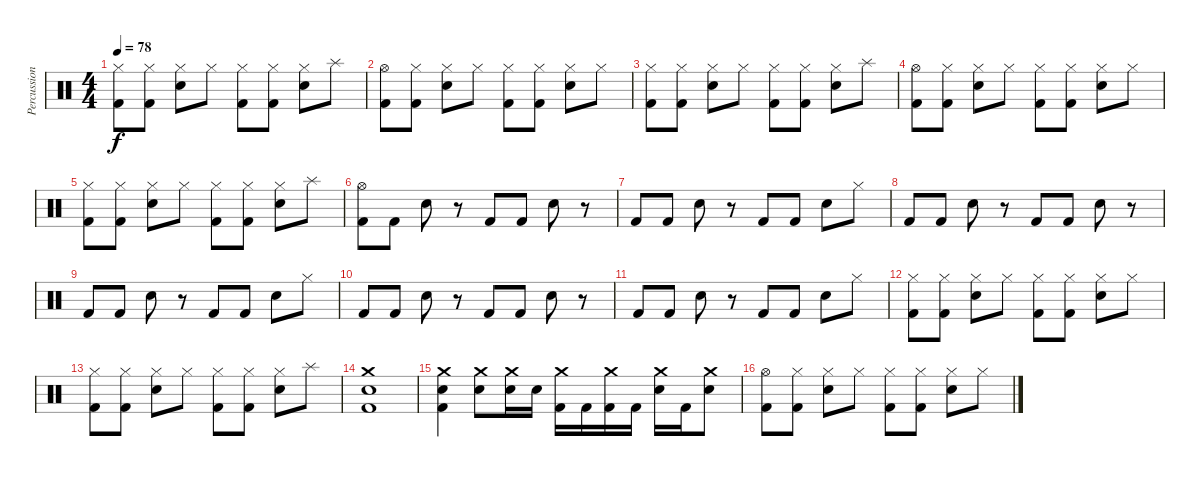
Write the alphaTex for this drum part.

\track ("Percussions" "Percussion") {instrument percussion}
\staff {score}
\articulation defaults
\ts (4 4)
\tempo 78
\clef neutral
\ks c
("Hi-Hat (closed)" "Kick (hit) 2").8{dy f} ("Hi-Hat (closed)" "Kick (hit) 2").8 ("Hi-Hat (closed)" "Electric Snare (hit)").8 "Hi-Hat (closed)".8 ("Hi-Hat (closed)" "Kick (hit) 2").8 ("Hi-Hat (closed)" "Kick (hit) 2").8 ("Hi-Hat (closed)" "Electric Snare (hit)").8 "Splash (hit)".8 |
("Hi-Hat (open)" "Kick (hit) 2").8 ("Hi-Hat (closed)" "Kick (hit) 2").8 ("Hi-Hat (closed)" "Electric Snare (hit)").8 "Hi-Hat (closed)".8 ("Hi-Hat (closed)" "Kick (hit) 2").8 ("Hi-Hat (closed)" "Kick (hit) 2").8 ("Hi-Hat (closed)" "Electric Snare (hit)").8 "Hi-Hat (closed)".8 |
("Hi-Hat (closed)" "Kick (hit) 2").8 ("Hi-Hat (closed)" "Kick (hit) 2").8 ("Hi-Hat (closed)" "Electric Snare (hit)").8 "Hi-Hat (closed)".8 ("Hi-Hat (closed)" "Kick (hit) 2").8 ("Hi-Hat (closed)" "Kick (hit) 2").8 ("Hi-Hat (closed)" "Electric Snare (hit)").8 "Splash (hit)".8 |
("Hi-Hat (open)" "Kick (hit) 2").8 ("Hi-Hat (closed)" "Kick (hit) 2").8 ("Hi-Hat (closed)" "Electric Snare (hit)").8 "Hi-Hat (closed)".8 ("Hi-Hat (closed)" "Kick (hit) 2").8 ("Hi-Hat (closed)" "Kick (hit) 2").8 ("Hi-Hat (closed)" "Electric Snare (hit)").8 "Hi-Hat (closed)".8 |
("Hi-Hat (closed)" "Kick (hit) 2").8 ("Hi-Hat (closed)" "Kick (hit) 2").8 ("Hi-Hat (closed)" "Electric Snare (hit)").8 "Hi-Hat (closed)".8 ("Hi-Hat (closed)" "Kick (hit) 2").8 ("Hi-Hat (closed)" "Kick (hit) 2").8 ("Hi-Hat (closed)" "Electric Snare (hit)").8 "Splash (hit)".8 |
("Hi-Hat (open)" "Kick (hit) 2").8 "Kick (hit) 2".8 "Electric Snare (hit)".8 r.8 "Kick (hit) 2".8 "Kick (hit) 2".8 "Electric Snare (hit)".8 r.8 |
"Kick (hit) 2".8 "Kick (hit) 2".8 "Electric Snare (hit)".8 r.8 "Kick (hit) 2".8 "Kick (hit) 2".8 "Electric Snare (hit)".8 "Hi-Hat (closed)".8 |
"Kick (hit) 2".8 "Kick (hit) 2".8 "Electric Snare (hit)".8 r.8 "Kick (hit) 2".8 "Kick (hit) 2".8 "Electric Snare (hit)".8 r.8 |
"Kick (hit) 2".8 "Kick (hit) 2".8 "Electric Snare (hit)".8 r.8 "Kick (hit) 2".8 "Kick (hit) 2".8 "Electric Snare (hit)".8 "Hi-Hat (closed)".8 |
"Kick (hit) 2".8 "Kick (hit) 2".8 "Electric Snare (hit)".8 r.8 "Kick (hit) 2".8 "Kick (hit) 2".8 "Electric Snare (hit)".8 r.8 |
"Kick (hit) 2".8 "Kick (hit) 2".8 "Electric Snare (hit)".8 r.8 "Kick (hit) 2".8 "Kick (hit) 2".8 "Electric Snare (hit)".8 "Hi-Hat (closed)".8 |
("Hi-Hat (closed)" "Kick (hit) 2").8 ("Hi-Hat (closed)" "Kick (hit) 2").8 ("Hi-Hat (closed)" "Electric Snare (hit)").8 "Hi-Hat (closed)".8 ("Hi-Hat (closed)" "Kick (hit) 2").8 ("Hi-Hat (closed)" "Kick (hit) 2").8 ("Hi-Hat (closed)" "Electric Snare (hit)").8 "Hi-Hat (closed)".8 |
("Hi-Hat (closed)" "Kick (hit) 2").8 ("Hi-Hat (closed)" "Kick (hit) 2").8 ("Hi-Hat (closed)" "Electric Snare (hit)").8 "Hi-Hat (closed)".8 ("Hi-Hat (closed)" "Kick (hit) 2").8 ("Hi-Hat (closed)" "Kick (hit) 2").8 ("Hi-Hat (closed)" "Electric Snare (hit)").8 "Splash (hit)".8 |
("Crash medium (hit)" "Electric Snare (hit)" "Kick (hit) 2").1 |
("Crash medium (hit)" "Electric Snare (hit)" "Kick (hit) 2").4 ("Crash medium (hit)" "Electric Snare (hit)").8 ("Crash medium (hit)" "Electric Snare (hit)").16 "Electric Snare (hit)".16 ("Crash medium (hit)" "Kick (hit) 2").16 "Kick (hit) 2".16 ("Crash medium (hit)" "Kick (hit) 2").16 "Kick (hit) 2".16 ("Crash medium (hit)" "Electric Snare (hit)").16 "Kick (hit) 2".16 ("Crash medium (hit)" "Electric Snare (hit)").8 |
("Hi-Hat (open)" "Kick (hit) 2").8 ("Hi-Hat (closed)" "Kick (hit) 2").8 ("Hi-Hat (closed)" "Electric Snare (hit)").8 "Hi-Hat (closed)".8 ("Hi-Hat (closed)" "Kick (hit) 2").8 ("Hi-Hat (closed)" "Kick (hit) 2").8 ("Hi-Hat (closed)" "Electric Snare (hit)").8 "Hi-Hat (closed)".8
